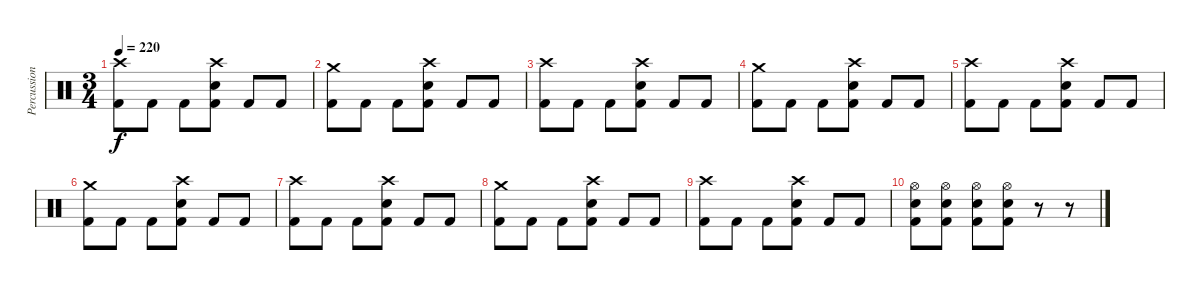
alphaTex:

\track ("Percussion" "Percussion") {instrument percussion}
\staff {score}
\articulation defaults
\ts (3 4)
\tempo 220
\clef neutral
\ks c
("Crash high (hit)" "Kick (hit) 2").8{dy f} "Kick (hit) 2".8 "Kick (hit) 2".8 ("Crash high (hit)" "Electric Snare (hit)" "Kick (hit) 2").8 "Kick (hit) 2".8 "Kick (hit) 2".8 |
("Crash medium (hit)" "Kick (hit) 2").8 "Kick (hit) 2".8 "Kick (hit) 2".8 ("Crash high (hit)" "Electric Snare (hit)" "Kick (hit) 2").8 "Kick (hit) 2".8 "Kick (hit) 2".8 |
("Crash high (hit)" "Kick (hit) 2").8 "Kick (hit) 2".8 "Kick (hit) 2".8 ("Crash high (hit)" "Electric Snare (hit)" "Kick (hit) 2").8 "Kick (hit) 2".8 "Kick (hit) 2".8 |
("Crash medium (hit)" "Kick (hit) 2").8 "Kick (hit) 2".8 "Kick (hit) 2".8 ("Crash high (hit)" "Electric Snare (hit)" "Kick (hit) 2").8 "Kick (hit) 2".8 "Kick (hit) 2".8 |
("Crash high (hit)" "Kick (hit) 2").8 "Kick (hit) 2".8 "Kick (hit) 2".8 ("Crash high (hit)" "Electric Snare (hit)" "Kick (hit) 2").8 "Kick (hit) 2".8 "Kick (hit) 2".8 |
("Crash medium (hit)" "Kick (hit) 2").8 "Kick (hit) 2".8 "Kick (hit) 2".8 ("Crash high (hit)" "Electric Snare (hit)" "Kick (hit) 2").8 "Kick (hit) 2".8 "Kick (hit) 2".8 |
("Crash high (hit)" "Kick (hit) 2").8 "Kick (hit) 2".8 "Kick (hit) 2".8 ("Crash high (hit)" "Electric Snare (hit)" "Kick (hit) 2").8 "Kick (hit) 2".8 "Kick (hit) 2".8 |
("Crash medium (hit)" "Kick (hit) 2").8 "Kick (hit) 2".8 "Kick (hit) 2".8 ("Crash high (hit)" "Electric Snare (hit)" "Kick (hit) 2").8 "Kick (hit) 2".8 "Kick (hit) 2".8 |
("Crash high (hit)" "Kick (hit) 2").8 "Kick (hit) 2".8 "Kick (hit) 2".8 ("Crash high (hit)" "Electric Snare (hit)" "Kick (hit) 2").8 "Kick (hit) 2".8 "Kick (hit) 2".8 |
("Hi-Hat (open)" "Electric Snare (hit)" "Kick (hit) 2").8 ("Hi-Hat (open)" "Electric Snare (hit)" "Kick (hit) 2").8 ("Hi-Hat (open)" "Electric Snare (hit)" "Kick (hit) 2").8 ("Hi-Hat (open)" "Electric Snare (hit)" "Kick (hit) 2").8 r.8 r.8
